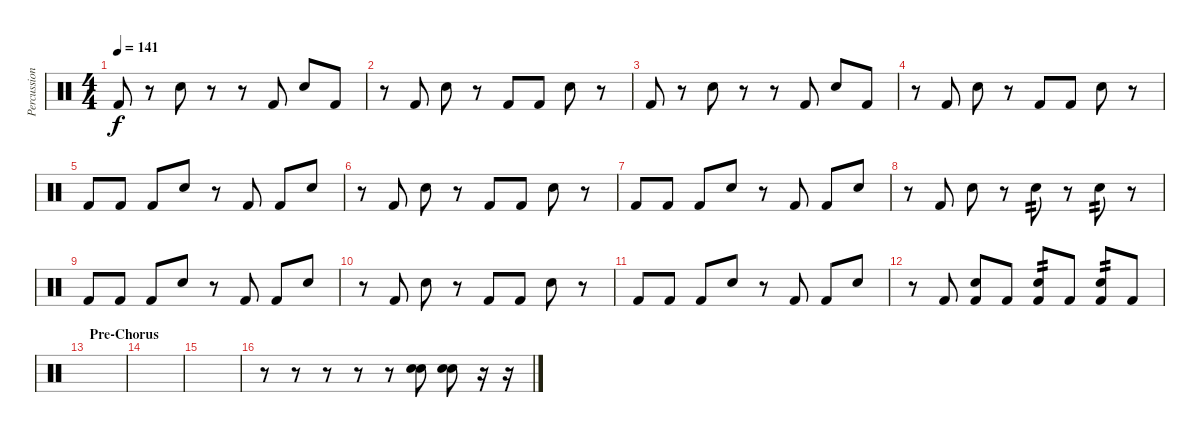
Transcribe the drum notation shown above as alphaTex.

\track ("Percussion" "Percussion") {instrument percussion}
\staff {score}
\articulation defaults
\ts (4 4)
\tempo 141
\clef neutral
\ks c "Kick (hit) 2".8{dy f}
r.8 "Electric Snare (hit)".8 r.8 r.8 "Kick (hit) 2".8 "Electric Snare (hit)".8 "Kick (hit) 2".8 |
r.8 "Kick (hit) 2".8 "Electric Snare (hit)".8 r.8 "Kick (hit) 2".8 "Kick (hit) 2".8 "Electric Snare (hit)".8 r.8 |
"Kick (hit) 2".8 r.8 "Electric Snare (hit)".8 r.8 r.8 "Kick (hit) 2".8 "Electric Snare (hit)".8 "Kick (hit) 2".8 |
r.8 "Kick (hit) 2".8 "Electric Snare (hit)".8 r.8 "Kick (hit) 2".8 "Kick (hit) 2".8 "Electric Snare (hit)".8 r.8 |
"Kick (hit) 2".8 "Kick (hit) 2".8 "Kick (hit) 2".8 "Electric Snare (hit)".8 r.8 "Kick (hit) 2".8 "Kick (hit) 2".8 "Electric Snare (hit)".8 |
r.8 "Kick (hit) 2".8 "Electric Snare (hit)".8 r.8 "Kick (hit) 2".8 "Kick (hit) 2".8 "Electric Snare (hit)".8 r.8 |
"Kick (hit) 2".8 "Kick (hit) 2".8 "Kick (hit) 2".8 "Electric Snare (hit)".8 r.8 "Kick (hit) 2".8 "Kick (hit) 2".8 "Electric Snare (hit)".8 |
r.8 "Kick (hit) 2".8 "Electric Snare (hit)".8 r.8 "Electric Snare (hit)".8{tp 2} r.8 "Electric Snare (hit)".8{tp 2} r.8 |
"Kick (hit) 2".8 "Kick (hit) 2".8 "Kick (hit) 2".8 "Electric Snare (hit)".8 r.8 "Kick (hit) 2".8 "Kick (hit) 2".8 "Electric Snare (hit)".8 |
r.8 "Kick (hit) 2".8 "Electric Snare (hit)".8 r.8 "Kick (hit) 2".8 "Kick (hit) 2".8 "Electric Snare (hit)".8 r.8 |
"Kick (hit) 2".8 "Kick (hit) 2".8 "Kick (hit) 2".8 "Electric Snare (hit)".8 r.8 "Kick (hit) 2".8 "Kick (hit) 2".8 "Electric Snare (hit)".8 |
r.8 "Kick (hit) 2".8 ("Electric Snare (hit)" "Kick (hit) 2").8 "Kick (hit) 2".8 ("Electric Snare (hit)" "Kick (hit) 2").8{tp 2} "Kick (hit) 2".8 ("Electric Snare (hit)" "Kick (hit) 2").8{tp 2} "Kick (hit) 2".8 |
\section ("" "Pre-Chorus")
|
|
\section ("" "")
|
r.8 r.8 r.8 r.8 r.8 ("Electric Snare (hit)" "Electric Snare (hit)").8 ("Electric Snare (hit)" "Electric Snare (hit)").8 r.16 r.16
